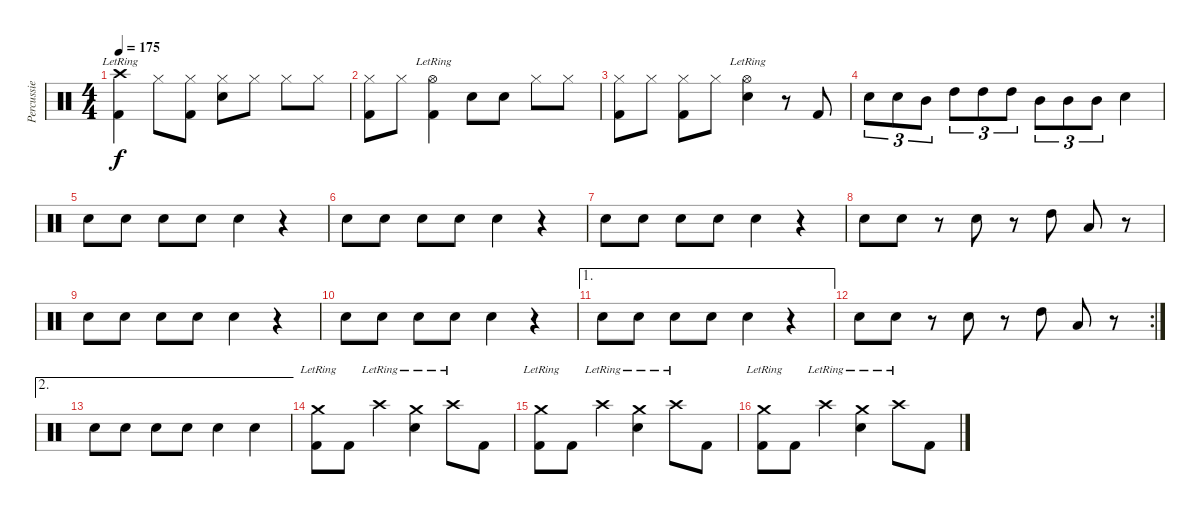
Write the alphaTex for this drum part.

\track ("Percussie" "Percussie") {instrument percussion}
\staff {score}
\articulation defaults
\ts (4 4)
\tempo 175
\clef neutral
\ks c
("Crash high (hit)"{lr} "Kick (hit) 2").4{dy f} "Hi-Hat (closed)".8 ("Hi-Hat (closed)" "Kick (hit) 2").8 ("Hi-Hat (closed)" "Snare (hit) 2").8 "Hi-Hat (closed)".8 "Hi-Hat (closed)".8 "Hi-Hat (closed)".8 |
("Hi-Hat (closed)" "Kick (hit) 2").8 "Hi-Hat (closed)".8 ("Hi-Hat (open)"{lr} "Kick (hit) 2").4 "Snare (hit) 2".8 "Snare (hit) 2".8 "Hi-Hat (closed)".8 "Hi-Hat (closed)".8 |
("Hi-Hat (closed)" "Kick (hit) 2").8 "Hi-Hat (closed)".8 ("Hi-Hat (closed)" "Kick (hit) 2").8 "Hi-Hat (closed)".8 ("Hi-Hat (open)"{lr} "Snare (hit) 2").4 r.8 "Kick (hit) 2".8 |
"Snare (hit) 2".8{tu (3 2)} "Snare (hit) 2".8{tu (3 2)} "Mid Tom (hit)".8{tu (3 2)} "High Tom (hit)".8{tu (3 2)} "High Tom (hit)".8{tu (3 2)} "High Tom (hit)".8{tu (3 2)} "Mid Tom (hit)".8{tu (3 2)} "Mid Tom (hit)".8{tu (3 2)} "Mid Tom (hit)".8{tu (3 2)} "Snare (hit) 2".4 |
"Snare (hit) 2".8 "Snare (hit) 2".8 "Snare (hit) 2".8 "Snare (hit) 2".8 "Snare (hit) 2".4 r.4 |
"Snare (hit) 2".8 "Snare (hit) 2".8 "Snare (hit) 2".8 "Snare (hit) 2".8 "Snare (hit) 2".4 r.4 |
"Snare (hit) 2".8 "Snare (hit) 2".8 "Snare (hit) 2".8 "Snare (hit) 2".8 "Snare (hit) 2".4 r.4 |
"Snare (hit) 2".8 "Snare (hit) 2".8 r.8 "Snare (hit) 2".8 r.8 "High Tom (hit)".8 "Low Tom (hit)".8 r.8 |
"Snare (hit) 2".8 "Snare (hit) 2".8 "Snare (hit) 2".8 "Snare (hit) 2".8 "Snare (hit) 2".4 r.4 |
"Snare (hit) 2".8 "Snare (hit) 2".8 "Snare (hit) 2".8 "Snare (hit) 2".8 "Snare (hit) 2".4 r.4 |
\ae 1 "Snare (hit) 2".8 "Snare (hit) 2".8 "Snare (hit) 2".8 "Snare (hit) 2".8 "Snare (hit) 2".4
r.4 |
\rc 2 "Snare (hit) 2".8 "Snare (hit) 2".8
r.8 "Snare (hit) 2".8 r.8 "High Tom (hit)".8 "Low Tom (hit)".8 r.8 |
\ae 2 "Snare (hit) 2".8 "Snare (hit) 2".8 "Snare (hit) 2".8 "Snare (hit) 2".8 "Snare (hit) 2".4 "Snare (hit) 2".4
|
("Crash medium (hit)"{lr} "Kick (hit) 2").8 "Kick (hit) 2".8 "Crash high (hit)"{lr}.4 ("Crash medium (hit)"{lr} "Snare (hit) 2").4 "Crash high (hit)"{lr}.8 "Kick (hit) 2".8 |
("Crash medium (hit)"{lr} "Kick (hit) 2").8 "Kick (hit) 2".8 "Crash high (hit)"{lr}.4 ("Crash medium (hit)"{lr} "Snare (hit) 2").4 "Crash high (hit)"{lr}.8 "Kick (hit) 2".8 |
("Crash medium (hit)"{lr} "Kick (hit) 2").8 "Kick (hit) 2".8 "Crash high (hit)"{lr}.4 ("Crash medium (hit)"{lr} "Snare (hit) 2").4 "Crash high (hit)"{lr}.8 "Kick (hit) 2".8
